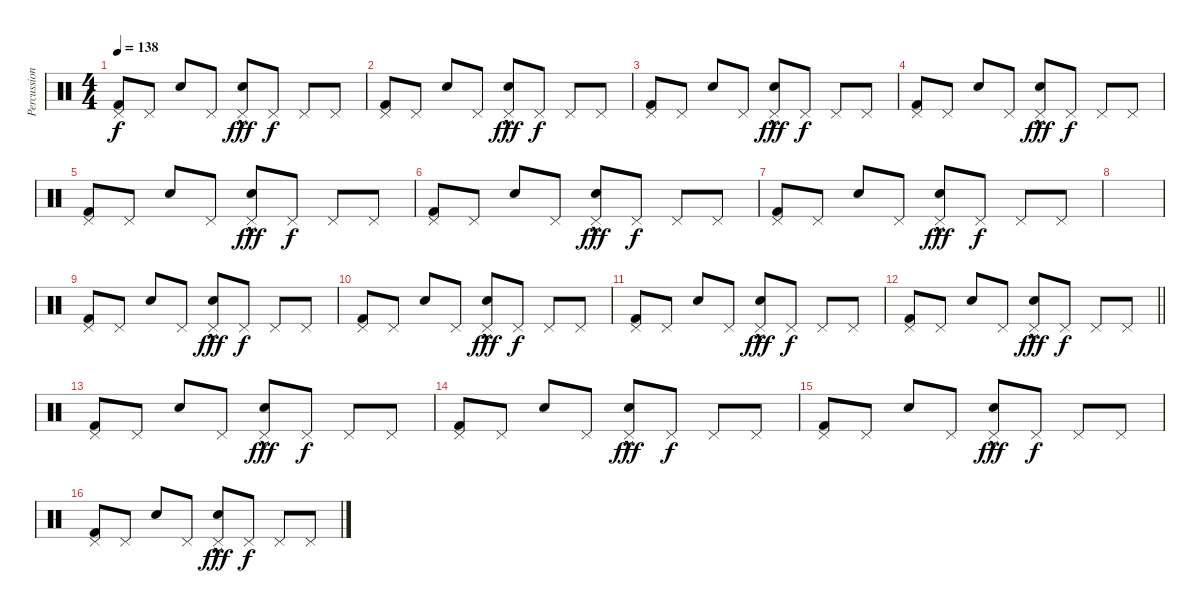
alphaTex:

\track ("Percussion" "Percussion") {instrument percussion}
\staff {score}
\articulation defaults
\ts (4 4)
\tempo 138
\clef neutral
\ks c
("Kick (hit) 2" "Pedal Hi-Hat (hit)").8{dy f} "Pedal Hi-Hat (hit)".8 "Snare (hit)".8 "Pedal Hi-Hat (hit)".8 ("Snare (hit) 2"{hac} "Pedal Hi-Hat (hit)").8{dy fff} "Pedal Hi-Hat (hit)".8{dy f} "Pedal Hi-Hat (hit)".8 "Pedal Hi-Hat (hit)".8 |
("Kick (hit) 2" "Pedal Hi-Hat (hit)").8 "Pedal Hi-Hat (hit)".8 "Snare (hit)".8 "Pedal Hi-Hat (hit)".8 ("Snare (hit) 2"{hac} "Pedal Hi-Hat (hit)").8{dy fff} "Pedal Hi-Hat (hit)".8{dy f} "Pedal Hi-Hat (hit)".8 "Pedal Hi-Hat (hit)".8 |
("Kick (hit) 2" "Pedal Hi-Hat (hit)").8 "Pedal Hi-Hat (hit)".8 "Snare (hit)".8 "Pedal Hi-Hat (hit)".8 ("Snare (hit) 2"{hac} "Pedal Hi-Hat (hit)").8{dy fff} "Pedal Hi-Hat (hit)".8{dy f} "Pedal Hi-Hat (hit)".8 "Pedal Hi-Hat (hit)".8 |
("Kick (hit) 2" "Pedal Hi-Hat (hit)").8 "Pedal Hi-Hat (hit)".8 "Snare (hit)".8 "Pedal Hi-Hat (hit)".8 ("Snare (hit) 2"{hac} "Pedal Hi-Hat (hit)").8{dy fff} "Pedal Hi-Hat (hit)".8{dy f} "Pedal Hi-Hat (hit)".8 "Pedal Hi-Hat (hit)".8 |
("Kick (hit) 2" "Pedal Hi-Hat (hit)").8 "Pedal Hi-Hat (hit)".8 "Snare (hit)".8 "Pedal Hi-Hat (hit)".8 ("Snare (hit) 2"{hac} "Pedal Hi-Hat (hit)").8{dy fff} "Pedal Hi-Hat (hit)".8{dy f} "Pedal Hi-Hat (hit)".8 "Pedal Hi-Hat (hit)".8 |
("Kick (hit) 2" "Pedal Hi-Hat (hit)").8 "Pedal Hi-Hat (hit)".8 "Snare (hit)".8 "Pedal Hi-Hat (hit)".8 ("Snare (hit) 2"{hac} "Pedal Hi-Hat (hit)").8{dy fff} "Pedal Hi-Hat (hit)".8{dy f} "Pedal Hi-Hat (hit)".8 "Pedal Hi-Hat (hit)".8 |
("Kick (hit) 2" "Pedal Hi-Hat (hit)").8 "Pedal Hi-Hat (hit)".8 "Snare (hit)".8 "Pedal Hi-Hat (hit)".8 ("Snare (hit) 2"{hac} "Pedal Hi-Hat (hit)").8{dy fff} "Pedal Hi-Hat (hit)".8{dy f} "Pedal Hi-Hat (hit)".8 "Pedal Hi-Hat (hit)".8 |
|
("Kick (hit) 2" "Pedal Hi-Hat (hit)").8 "Pedal Hi-Hat (hit)".8 "Snare (hit)".8 "Pedal Hi-Hat (hit)".8 ("Snare (hit) 2"{hac} "Pedal Hi-Hat (hit)").8{dy fff} "Pedal Hi-Hat (hit)".8{dy f} "Pedal Hi-Hat (hit)".8 "Pedal Hi-Hat (hit)".8 |
("Kick (hit) 2" "Pedal Hi-Hat (hit)").8 "Pedal Hi-Hat (hit)".8 "Snare (hit)".8 "Pedal Hi-Hat (hit)".8 ("Snare (hit) 2"{hac} "Pedal Hi-Hat (hit)").8{dy fff} "Pedal Hi-Hat (hit)".8{dy f} "Pedal Hi-Hat (hit)".8 "Pedal Hi-Hat (hit)".8 |
("Kick (hit) 2" "Pedal Hi-Hat (hit)").8 "Pedal Hi-Hat (hit)".8 "Snare (hit)".8 "Pedal Hi-Hat (hit)".8 ("Snare (hit) 2"{hac} "Pedal Hi-Hat (hit)").8{dy fff} "Pedal Hi-Hat (hit)".8{dy f} "Pedal Hi-Hat (hit)".8 "Pedal Hi-Hat (hit)".8 |
\barLineRight lightlight
("Kick (hit) 2" "Pedal Hi-Hat (hit)").8 "Pedal Hi-Hat (hit)".8 "Snare (hit)".8 "Pedal Hi-Hat (hit)".8 ("Snare (hit) 2"{hac} "Pedal Hi-Hat (hit)").8{dy fff} "Pedal Hi-Hat (hit)".8{dy f} "Pedal Hi-Hat (hit)".8 "Pedal Hi-Hat (hit)".8 |
("Kick (hit) 2" "Pedal Hi-Hat (hit)").8 "Pedal Hi-Hat (hit)".8 "Snare (hit)".8 "Pedal Hi-Hat (hit)".8 ("Snare (hit) 2"{hac} "Pedal Hi-Hat (hit)").8{dy fff} "Pedal Hi-Hat (hit)".8{dy f} "Pedal Hi-Hat (hit)".8 "Pedal Hi-Hat (hit)".8 |
("Kick (hit) 2" "Pedal Hi-Hat (hit)").8 "Pedal Hi-Hat (hit)".8 "Snare (hit)".8 "Pedal Hi-Hat (hit)".8 ("Snare (hit) 2"{hac} "Pedal Hi-Hat (hit)").8{dy fff} "Pedal Hi-Hat (hit)".8{dy f} "Pedal Hi-Hat (hit)".8 "Pedal Hi-Hat (hit)".8 |
("Kick (hit) 2" "Pedal Hi-Hat (hit)").8 "Pedal Hi-Hat (hit)".8 "Snare (hit)".8 "Pedal Hi-Hat (hit)".8 ("Snare (hit) 2"{hac} "Pedal Hi-Hat (hit)").8{dy fff} "Pedal Hi-Hat (hit)".8{dy f} "Pedal Hi-Hat (hit)".8 "Pedal Hi-Hat (hit)".8 |
("Kick (hit) 2" "Pedal Hi-Hat (hit)").8 "Pedal Hi-Hat (hit)".8 "Snare (hit)".8 "Pedal Hi-Hat (hit)".8 ("Snare (hit) 2"{hac} "Pedal Hi-Hat (hit)").8{dy fff} "Pedal Hi-Hat (hit)".8{dy f} "Pedal Hi-Hat (hit)".8 "Pedal Hi-Hat (hit)".8
